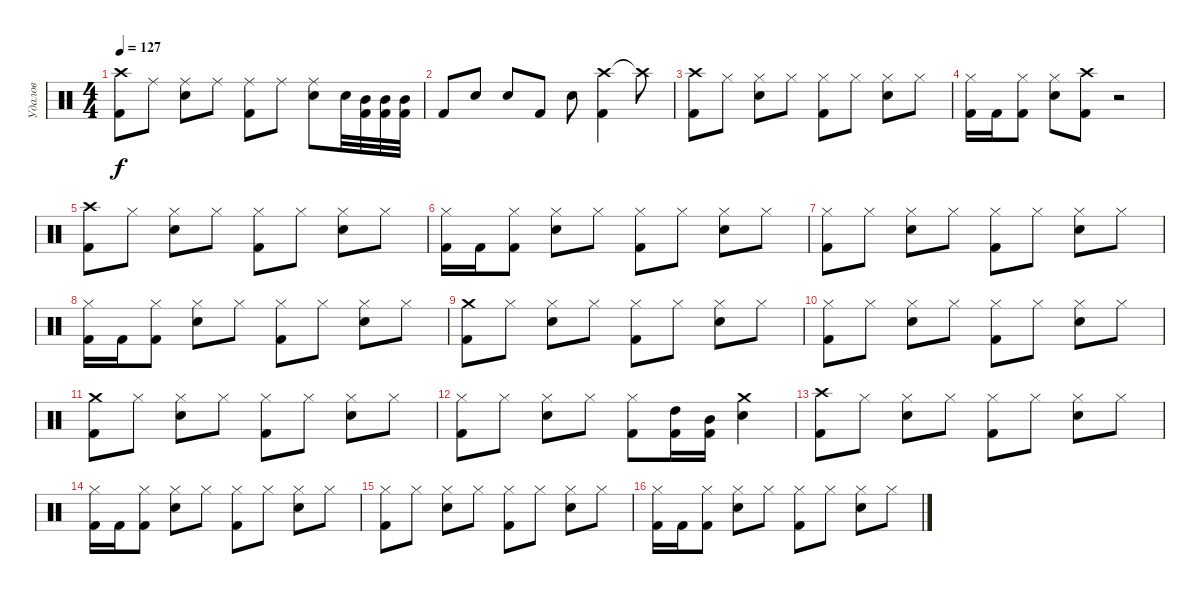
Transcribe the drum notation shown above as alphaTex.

\track ("Удалов" "Удалов") {instrument percussion}
\staff {score}
\articulation defaults
\ts (4 4)
\tempo 127
\clef neutral
\ks c
("Crash high (hit)" "Kick (hit) 2").8{dy f} "Ride (middle)".8 ("Ride (middle)" "Snare (hit) 2").8 "Ride (middle)".8 ("Ride (middle)" "Kick (hit) 2").8 "Ride (middle)".8 ("Ride (middle)" "Snare (hit) 2").8 "Snare (hit) 2".32 ("Mid Tom (hit)" "Kick (hit) 2").32 ("Mid Tom (hit)" "Kick (hit) 2").32 ("Mid Tom (hit)" "Kick (hit) 2").32 |
"Kick (hit) 2".8 "Snare (hit) 2".8 "Snare (hit) 2".8 "Kick (hit) 2".8 "Snare (hit) 2".8 ("Crash high (hit)" "Kick (hit) 2").4 "Crash high (hit)"{t}.8 |
("Crash high (hit)" "Kick (hit) 2").8 "Hi-Hat (closed)".8 ("Hi-Hat (closed)" "Snare (hit) 2").8 "Hi-Hat (closed)".8 ("Hi-Hat (closed)" "Kick (hit) 2").8 "Hi-Hat (closed)".8 ("Hi-Hat (closed)" "Snare (hit) 2").8 "Hi-Hat (closed)".8 |
("Hi-Hat (closed)" "Kick (hit) 2").16 "Kick (hit) 2".16 ("Hi-Hat (closed)" "Kick (hit) 2").8 ("Hi-Hat (closed)" "Snare (hit) 2").8 ("Crash high (hit)" "Kick (hit) 2").8 r.2 |
("Crash high (hit)" "Kick (hit) 2").8 "Hi-Hat (closed)".8 ("Hi-Hat (closed)" "Snare (hit) 2").8 "Hi-Hat (closed)".8 ("Hi-Hat (closed)" "Kick (hit) 2").8 "Hi-Hat (closed)".8 ("Hi-Hat (closed)" "Snare (hit) 2").8 "Hi-Hat (closed)".8 |
("Hi-Hat (closed)" "Kick (hit) 2").16 "Kick (hit) 2".16 ("Hi-Hat (closed)" "Kick (hit) 2").8 ("Hi-Hat (closed)" "Snare (hit) 2").8 "Hi-Hat (closed)".8 ("Hi-Hat (closed)" "Kick (hit) 2").8 "Hi-Hat (closed)".8 ("Hi-Hat (closed)" "Snare (hit) 2").8 "Hi-Hat (closed)".8 |
("Hi-Hat (closed)" "Kick (hit) 2").8 "Hi-Hat (closed)".8 ("Hi-Hat (closed)" "Snare (hit) 2").8 "Hi-Hat (closed)".8 ("Hi-Hat (closed)" "Kick (hit) 2").8 "Hi-Hat (closed)".8 ("Hi-Hat (closed)" "Snare (hit) 2").8 "Hi-Hat (closed)".8 |
("Hi-Hat (closed)" "Kick (hit) 2").16 "Kick (hit) 2".16 ("Hi-Hat (closed)" "Kick (hit) 2").8 ("Hi-Hat (closed)" "Snare (hit) 2").8 "Hi-Hat (closed)".8 ("Hi-Hat (closed)" "Kick (hit) 2").8 "Hi-Hat (closed)".8 ("Hi-Hat (closed)" "Snare (hit) 2").8 "Hi-Hat (closed)".8 |
("Crash medium (hit)" "Kick (hit) 2").8 "Hi-Hat (closed)".8 ("Hi-Hat (closed)" "Snare (hit) 2").8 "Hi-Hat (closed)".8 ("Hi-Hat (closed)" "Kick (hit) 2").8 "Hi-Hat (closed)".8 ("Hi-Hat (closed)" "Snare (hit) 2").8 "Hi-Hat (closed)".8 |
("Hi-Hat (closed)" "Kick (hit) 2").8 "Hi-Hat (closed)".8 ("Hi-Hat (closed)" "Snare (hit) 2").8 "Hi-Hat (closed)".8 ("Hi-Hat (closed)" "Kick (hit) 2").8 "Hi-Hat (closed)".8 ("Hi-Hat (closed)" "Snare (hit) 2").8 "Hi-Hat (closed)".8 |
("Crash medium (hit)" "Kick (hit) 2").8 "Hi-Hat (closed)".8 ("Hi-Hat (closed)" "Snare (hit) 2").8 "Hi-Hat (closed)".8 ("Hi-Hat (closed)" "Kick (hit) 2").8 "Hi-Hat (closed)".8 ("Hi-Hat (closed)" "Snare (hit) 2").8 "Hi-Hat (closed)".8 |
("Hi-Hat (closed)" "Kick (hit) 2").8 "Hi-Hat (closed)".8 ("Hi-Hat (closed)" "Snare (hit) 2").8 "Hi-Hat (closed)".8 ("Hi-Hat (closed)" "Kick (hit) 2").8 ("High Tom (hit)" "Kick (hit) 2").16 ("Mid Tom (hit)" "Kick (hit) 2").16 ("Crash medium (hit)" "Electric Snare (hit)").4 |
("Crash high (hit)" "Kick (hit) 2").8 "Hi-Hat (closed)".8 ("Hi-Hat (closed)" "Snare (hit) 2").8 "Hi-Hat (closed)".8 ("Hi-Hat (closed)" "Kick (hit) 2").8 "Hi-Hat (closed)".8 ("Hi-Hat (closed)" "Snare (hit) 2").8 "Hi-Hat (closed)".8 |
("Hi-Hat (closed)" "Kick (hit) 2").16 "Kick (hit) 2".16 ("Hi-Hat (closed)" "Kick (hit) 2").8 ("Hi-Hat (closed)" "Snare (hit) 2").8 "Hi-Hat (closed)".8 ("Hi-Hat (closed)" "Kick (hit) 2").8 "Hi-Hat (closed)".8 ("Hi-Hat (closed)" "Snare (hit) 2").8 "Hi-Hat (closed)".8 |
("Hi-Hat (closed)" "Kick (hit) 2").8 "Hi-Hat (closed)".8 ("Hi-Hat (closed)" "Snare (hit) 2").8 "Hi-Hat (closed)".8 ("Hi-Hat (closed)" "Kick (hit) 2").8 "Hi-Hat (closed)".8 ("Hi-Hat (closed)" "Snare (hit) 2").8 "Hi-Hat (closed)".8 |
("Hi-Hat (closed)" "Kick (hit) 2").16 "Kick (hit) 2".16 ("Hi-Hat (closed)" "Kick (hit) 2").8 ("Hi-Hat (closed)" "Snare (hit) 2").8 "Hi-Hat (closed)".8 ("Hi-Hat (closed)" "Kick (hit) 2").8 "Hi-Hat (closed)".8 ("Hi-Hat (closed)" "Snare (hit) 2").8 "Hi-Hat (closed)".8
